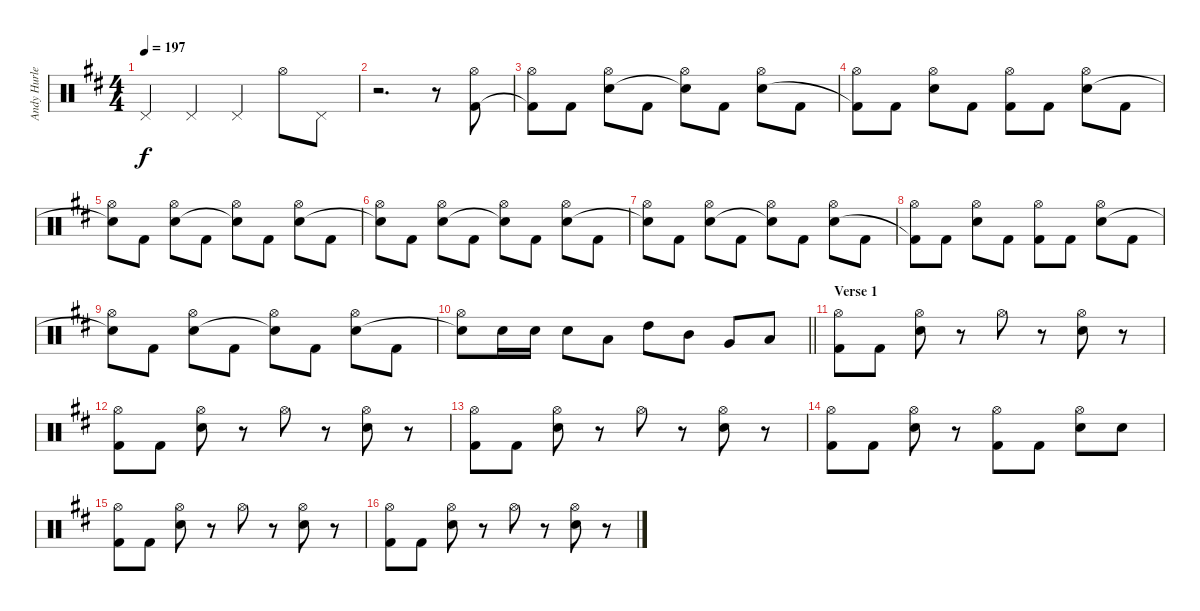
\track ("Andy Hurley (Drums)" "Andy Hurle") {instrument percussion}
\staff {score}
\articulation defaults
\ts (4 4)
\tempo 197
\clef neutral
\ks d "Pedal Hi-Hat (hit)".4{dy f} "Pedal Hi-Hat (hit)".4 "Pedal Hi-Hat (hit)".4 "Hi-Hat (open)".8 "Pedal Hi-Hat (hit)".8
|
r.2{d} r.8 ("Hi-Hat (open)" "Kick (hit) 2").8 |
("Hi-Hat (open)" "Kick (hit) 2"{t}).8 "Kick (hit) 2".8 ("Hi-Hat (open)" "Electric Snare (hit)").8 "Kick (hit) 2".8 ("Hi-Hat (open)" "Snare (hit)"{t}).8 "Kick (hit) 2".8 ("Hi-Hat (open)" "Electric Snare (hit)").8 "Kick (hit) 2".8 |
("Hi-Hat (open)" "Kick (hit) 2"{t}).8 "Kick (hit) 2".8 ("Hi-Hat (open)" "Electric Snare (hit)").8 "Kick (hit) 2".8 ("Hi-Hat (open)" "Kick (hit) 2").8 "Kick (hit) 2".8 ("Hi-Hat (open)" "Electric Snare (hit)").8 "Kick (hit) 2".8 |
("Hi-Hat (open)" "Snare (hit)"{t}).8 "Kick (hit) 2".8 ("Hi-Hat (open)" "Electric Snare (hit)").8 "Kick (hit) 2".8 ("Hi-Hat (open)" "Snare (hit)"{t}).8 "Kick (hit) 2".8 ("Hi-Hat (open)" "Electric Snare (hit)").8 "Kick (hit) 2".8 |
("Hi-Hat (open)" "Snare (hit)"{t}).8 "Kick (hit) 2".8 ("Hi-Hat (open)" "Electric Snare (hit)").8 "Kick (hit) 2".8 ("Hi-Hat (open)" "Snare (hit)"{t}).8 "Kick (hit) 2".8 ("Hi-Hat (open)" "Electric Snare (hit)").8 "Kick (hit) 2".8 |
("Hi-Hat (open)" "Snare (hit)"{t}).8 "Kick (hit) 2".8 ("Hi-Hat (open)" "Electric Snare (hit)").8 "Kick (hit) 2".8 ("Hi-Hat (open)" "Snare (hit)"{t}).8 "Kick (hit) 2".8 ("Hi-Hat (open)" "Electric Snare (hit)").8 "Kick (hit) 2".8 |
("Hi-Hat (open)" "Kick (hit) 2"{t}).8 "Kick (hit) 2".8 ("Hi-Hat (open)" "Electric Snare (hit)").8 "Kick (hit) 2".8 ("Hi-Hat (open)" "Kick (hit) 2").8 "Kick (hit) 2".8 ("Hi-Hat (open)" "Electric Snare (hit)").8 "Kick (hit) 2".8 |
("Hi-Hat (open)" "Snare (hit)"{t}).8 "Kick (hit) 2".8 ("Hi-Hat (open)" "Electric Snare (hit)").8 "Kick (hit) 2".8 ("Hi-Hat (open)" "Snare (hit)"{t}).8 "Kick (hit) 2".8 ("Hi-Hat (open)" "Electric Snare (hit)").8 "Kick (hit) 2".8 |
\barLineRight lightlight
("Hi-Hat (open)" "Snare (hit)"{t}).8 "Electric Snare (hit)".16 "Electric Snare (hit)".16 "Electric Snare (hit)".8 "Low Tom (hit)".8 "High Tom (hit)".8 "Mid Tom (hit)".8 "Very Low Tom (hit)".8 "Low Floor Tom (hit)".8 |
\section ("" "Verse 1")
("Hi-Hat (open)" "Kick (hit) 2").8 "Kick (hit) 2".8 ("Hi-Hat (open)" "Electric Snare (hit)").8 r.8 "Hi-Hat (open)".8 r.8 ("Hi-Hat (open)" "Electric Snare (hit)").8 r.8 |
("Hi-Hat (open)" "Kick (hit) 2").8 "Kick (hit) 2".8 ("Hi-Hat (open)" "Electric Snare (hit)").8 r.8 "Hi-Hat (open)".8 r.8 ("Hi-Hat (open)" "Electric Snare (hit)").8 r.8 |
("Hi-Hat (open)" "Kick (hit) 2").8 "Kick (hit) 2".8 ("Hi-Hat (open)" "Electric Snare (hit)").8 r.8 "Hi-Hat (open)".8 r.8 ("Hi-Hat (open)" "Electric Snare (hit)").8 r.8 |
("Hi-Hat (open)" "Kick (hit) 2").8 "Kick (hit) 2".8 ("Hi-Hat (open)" "Electric Snare (hit)").8 r.8 ("Hi-Hat (open)" "Kick (hit) 2").8 "Kick (hit) 2".8 ("Hi-Hat (open)" "Electric Snare (hit)").8 "Electric Snare (hit)".8 |
("Hi-Hat (open)" "Kick (hit) 2").8 "Kick (hit) 2".8 ("Hi-Hat (open)" "Electric Snare (hit)").8 r.8 "Hi-Hat (open)".8 r.8 ("Hi-Hat (open)" "Electric Snare (hit)").8 r.8 |
("Hi-Hat (open)" "Kick (hit) 2").8 "Kick (hit) 2".8 ("Hi-Hat (open)" "Electric Snare (hit)").8 r.8 "Hi-Hat (open)".8 r.8 ("Hi-Hat (open)" "Electric Snare (hit)").8 r.8
